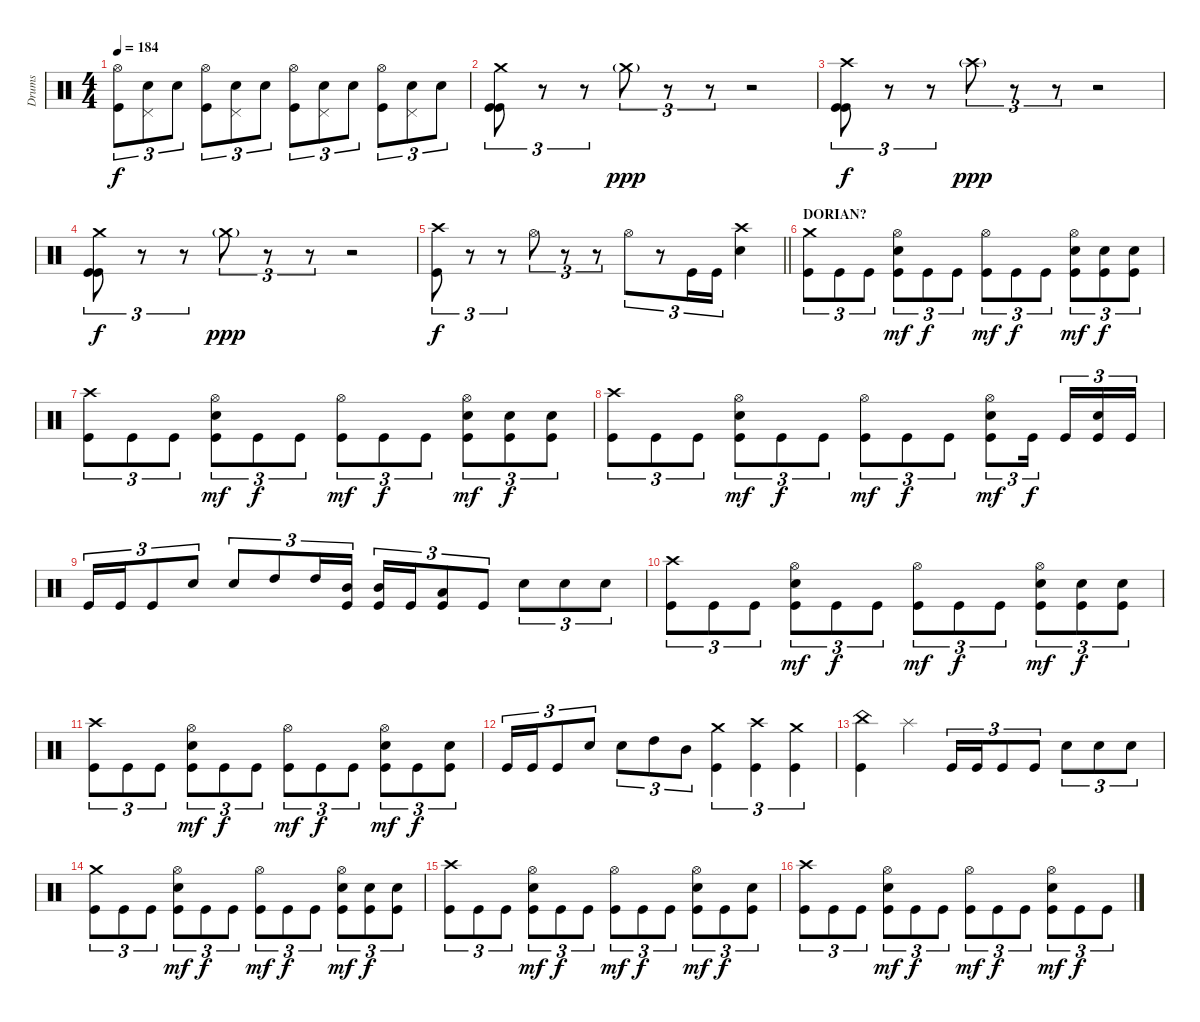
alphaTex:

\track ("Drums" "Drums") {instrument percussion}
\staff {score}
\articulation defaults
\ts (4 4)
\tempo 184
\clef neutral
\ks c
("Hi-Hat (open)" "Kick (hit)").8{tu (3 2) dy f} ("Pedal Hi-Hat (hit)" "Electric Snare (hit)").8{tu (3 2)} "Electric Snare (hit)".8{tu (3 2)} ("Hi-Hat (open)" "Kick (hit)").8{tu (3 2)} ("Pedal Hi-Hat (hit)" "Electric Snare (hit)").8{tu (3 2)} "Electric Snare (hit)".8{tu (3 2)} ("Hi-Hat (open)" "Kick (hit)").8{tu (3 2)} ("Pedal Hi-Hat (hit)" "Electric Snare (hit)").8{tu (3 2)} "Electric Snare (hit)".8{tu (3 2)} ("Hi-Hat (open)" "Kick (hit)").8{tu (3 2)} ("Pedal Hi-Hat (hit)" "Electric Snare (hit)").8{tu (3 2)} "Electric Snare (hit)".8{tu (3 2)} |
("Crash medium (hit)" "Kick (hit)" "Kick (hit)").8{tu (3 2) volume 15} r.8{tu (3 2)} r.8{tu (3 2)} "Crash medium (hit)"{g}.8{tu (3 2) dy ppp volume 0} r.8{tu (3 2)} r.8{tu (3 2)} r.2 |
("Crash high (hit)" "Kick (hit)" "Kick (hit)").8{tu (3 2) dy f volume 15} r.8{tu (3 2)} r.8{tu (3 2)} "Crash high (hit)"{g}.8{tu (3 2) dy ppp volume 0} r.8{tu (3 2)} r.8{tu (3 2)} r.2 |
("Crash medium (hit)" "Kick (hit)" "Kick (hit)").8{tu (3 2) dy f volume 15} r.8{tu (3 2)} r.8{tu (3 2)} "Crash medium (hit)"{g}.8{tu (3 2) dy ppp volume 0} r.8{tu (3 2)} r.8{tu (3 2)} r.2 |
\barLineRight lightlight
("Crash high (hit)" "Kick (hit)").8{tu (3 2) dy f volume 15} r.8{tu (3 2)} r.8{tu (3 2)} "Hi-Hat (open)".8{tu (3 2)} r.8{tu (3 2)} r.8{tu (3 2)} "Hi-Hat (open)".8{tu (3 2)} r.8{tu (3 2)} "Kick (hit)".16{tu (3 2)} "Kick (hit)".16{tu (3 2)} ("Crash high (hit)" "Electric Snare (hit)").4 |
\section ("" "DORIAN?")
("Crash medium (hit)" "Kick (hit)").8{tu (3 2)} "Kick (hit)".8{tu (3 2)} "Kick (hit)".8{tu (3 2)} ("Hi-Hat (open)" "Electric Snare (hit)" "Kick (hit)").8{tu (3 2) dy mf} "Kick (hit)".8{tu (3 2) dy f} "Kick (hit)".8{tu (3 2)} ("Hi-Hat (open)" "Kick (hit)").8{tu (3 2) dy mf} "Kick (hit)".8{tu (3 2) dy f} "Kick (hit)".8{tu (3 2)} ("Hi-Hat (open)" "Electric Snare (hit)" "Kick (hit)").8{tu (3 2) dy mf} ("Electric Snare (hit)" "Kick (hit)").8{tu (3 2) dy f} ("Electric Snare (hit)" "Kick (hit)").8{tu (3 2)} |
("Crash high (hit)" "Kick (hit)").8{tu (3 2)} "Kick (hit)".8{tu (3 2)} "Kick (hit)".8{tu (3 2)} ("Hi-Hat (open)" "Electric Snare (hit)" "Kick (hit)").8{tu (3 2) dy mf} "Kick (hit)".8{tu (3 2) dy f} "Kick (hit)".8{tu (3 2)} ("Hi-Hat (open)" "Kick (hit)").8{tu (3 2) dy mf} "Kick (hit)".8{tu (3 2) dy f} "Kick (hit)".8{tu (3 2)} ("Hi-Hat (open)" "Electric Snare (hit)" "Kick (hit)").8{tu (3 2) dy mf} ("Electric Snare (hit)" "Kick (hit)").8{tu (3 2) dy f} ("Electric Snare (hit)" "Kick (hit)").8{tu (3 2)} |
("Crash high (hit)" "Kick (hit)").8{tu (3 2)} "Kick (hit)".8{tu (3 2)} "Kick (hit)".8{tu (3 2)} ("Hi-Hat (open)" "Electric Snare (hit)" "Kick (hit)").8{tu (3 2) dy mf} "Kick (hit)".8{tu (3 2) dy f} "Kick (hit)".8{tu (3 2)} ("Hi-Hat (open)" "Kick (hit)").8{tu (3 2) dy mf} "Kick (hit)".8{tu (3 2) dy f} "Kick (hit)".8{tu (3 2)} ("Hi-Hat (open)" "Electric Snare (hit)" "Kick (hit)").8{tu (3 2) dy mf} "Kick (hit)".16{tu (3 2) dy f beam splitsecondary} "Kick (hit)".16{tu (3 2)} ("Electric Snare (hit)" "Kick (hit)").16{tu (3 2)} "Kick (hit)".16{tu (3 2)} |
"Kick (hit)".16{tu (3 2)} "Kick (hit)".16{tu (3 2)} "Kick (hit)".8{tu (3 2)} "Electric Snare (hit)".8{tu (3 2)} "Electric Snare (hit)".8{tu (3 2)} "High Tom (hit)".8{tu (3 2)} "High Tom (hit)".16{tu (3 2)} ("Mid Tom (hit)" "Kick (hit)").16{tu (3 2)} ("Mid Tom (hit)" "Kick (hit)").16{tu (3 2)} "Kick (hit)".16{tu (3 2)} ("Low Tom (hit)" "Kick (hit)").8{tu (3 2)} "Kick (hit)".8{tu (3 2)} "Electric Snare (hit)".8{tu (3 2)} "Electric Snare (hit)".8{tu (3 2)} "Electric Snare (hit)".8{tu (3 2)} |
("Crash high (hit)" "Kick (hit)").8{tu (3 2)} "Kick (hit)".8{tu (3 2)} "Kick (hit)".8{tu (3 2)} ("Hi-Hat (open)" "Electric Snare (hit)" "Kick (hit)").8{tu (3 2) dy mf} "Kick (hit)".8{tu (3 2) dy f} "Kick (hit)".8{tu (3 2)} ("Hi-Hat (open)" "Kick (hit)").8{tu (3 2) dy mf} "Kick (hit)".8{tu (3 2) dy f} "Kick (hit)".8{tu (3 2)} ("Hi-Hat (open)" "Electric Snare (hit)" "Kick (hit)").8{tu (3 2) dy mf} ("Electric Snare (hit)" "Kick (hit)").8{tu (3 2) dy f} ("Electric Snare (hit)" "Kick (hit)").8{tu (3 2)} |
("Crash high (hit)" "Kick (hit)").8{tu (3 2)} "Kick (hit)".8{tu (3 2)} "Kick (hit)".8{tu (3 2)} ("Hi-Hat (open)" "Electric Snare (hit)" "Kick (hit)").8{tu (3 2) dy mf} "Kick (hit)".8{tu (3 2) dy f} "Kick (hit)".8{tu (3 2)} ("Hi-Hat (open)" "Kick (hit)").8{tu (3 2) dy mf} "Kick (hit)".8{tu (3 2) dy f} "Kick (hit)".8{tu (3 2)} ("Hi-Hat (open)" "Electric Snare (hit)" "Kick (hit)").8{tu (3 2) dy mf} "Kick (hit)".8{tu (3 2) dy f} ("Electric Snare (hit)" "Kick (hit)").8{tu (3 2)} |
"Kick (hit)".16{tu (3 2)} "Kick (hit)".16{tu (3 2)} "Kick (hit)".8{tu (3 2)} "Electric Snare (hit)".8{tu (3 2)} "Electric Snare (hit)".8{tu (3 2)} "High Tom (hit)".8{tu (3 2)} "Mid Tom (hit)".8{tu (3 2)} ("Crash medium (hit)" "Kick (hit)").4{tu (3 2)} ("Crash high (hit)" "Kick (hit)").4{tu (3 2)} ("Crash medium (hit)" "Kick (hit)").4{tu (3 2)} |
("China (hit)" "Kick (hit)").4 "Splash (hit)".4 "Kick (hit)".16{tu (3 2)} "Kick (hit)".16{tu (3 2)} "Kick (hit)".8{tu (3 2)} "Kick (hit)".8{tu (3 2)} "Electric Snare (hit)".8{tu (3 2)} "Electric Snare (hit)".8{tu (3 2)} "Electric Snare (hit)".8{tu (3 2)} |
("Crash medium (hit)" "Kick (hit)").8{tu (3 2)} "Kick (hit)".8{tu (3 2)} "Kick (hit)".8{tu (3 2)} ("Hi-Hat (open)" "Electric Snare (hit)" "Kick (hit)").8{tu (3 2) dy mf} "Kick (hit)".8{tu (3 2) dy f} "Kick (hit)".8{tu (3 2)} ("Hi-Hat (open)" "Kick (hit)").8{tu (3 2) dy mf} "Kick (hit)".8{tu (3 2) dy f} "Kick (hit)".8{tu (3 2)} ("Hi-Hat (open)" "Electric Snare (hit)" "Kick (hit)").8{tu (3 2) dy mf} ("Electric Snare (hit)" "Kick (hit)").8{tu (3 2) dy f} ("Electric Snare (hit)" "Kick (hit)").8{tu (3 2)} |
("Crash high (hit)" "Kick (hit)").8{tu (3 2)} "Kick (hit)".8{tu (3 2)} "Kick (hit)".8{tu (3 2)} ("Hi-Hat (open)" "Electric Snare (hit)" "Kick (hit)").8{tu (3 2) dy mf} "Kick (hit)".8{tu (3 2) dy f} "Kick (hit)".8{tu (3 2)} ("Hi-Hat (open)" "Kick (hit)").8{tu (3 2) dy mf} "Kick (hit)".8{tu (3 2) dy f} "Kick (hit)".8{tu (3 2)} ("Hi-Hat (open)" "Electric Snare (hit)" "Kick (hit)").8{tu (3 2) dy mf} "Kick (hit)".8{tu (3 2) dy f} ("Electric Snare (hit)" "Kick (hit)").8{tu (3 2)} |
("Crash high (hit)" "Kick (hit)").8{tu (3 2)} "Kick (hit)".8{tu (3 2)} "Kick (hit)".8{tu (3 2)} ("Hi-Hat (open)" "Electric Snare (hit)" "Kick (hit)").8{tu (3 2) dy mf} "Kick (hit)".8{tu (3 2) dy f} "Kick (hit)".8{tu (3 2)} ("Hi-Hat (open)" "Kick (hit)").8{tu (3 2) dy mf} "Kick (hit)".8{tu (3 2) dy f} "Kick (hit)".8{tu (3 2)} ("Hi-Hat (open)" "Electric Snare (hit)" "Kick (hit)").8{tu (3 2) dy mf} "Kick (hit)".8{tu (3 2) dy f} "Kick (hit)".8{tu (3 2)}
